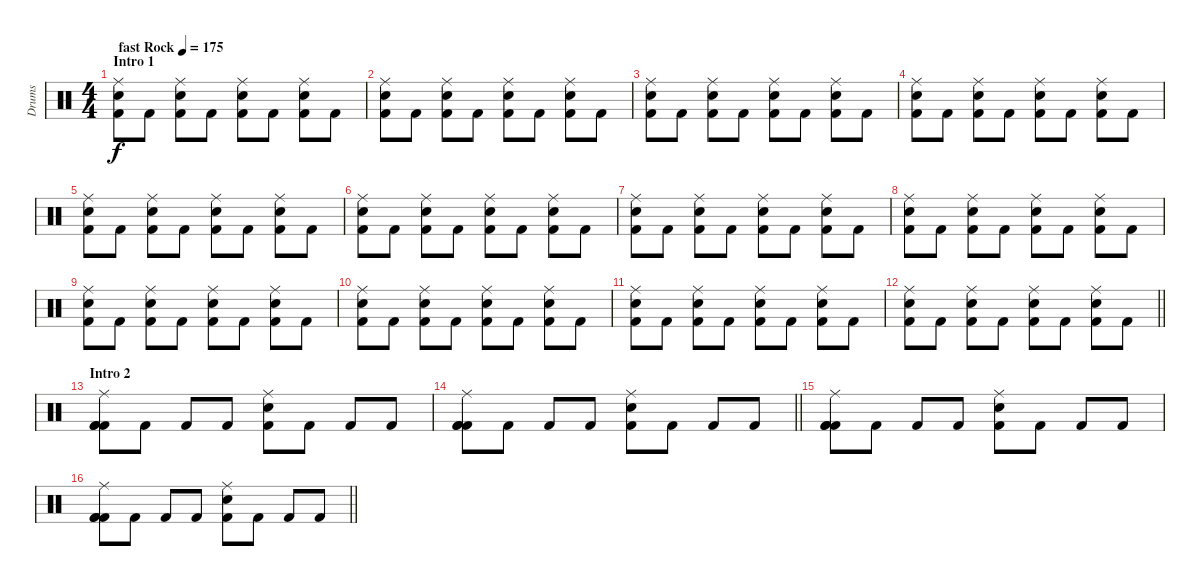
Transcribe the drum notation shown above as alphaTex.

\track ("Drums" "Drums") {instrument percussion}
\staff {score}
\articulation defaults
\ts (4 4)
\section ("" "Intro 1")
\tempo (175 "fast Rock")
\clef neutral
\ks c
("Ride (middle)" "Snare (hit) 2" "Kick (hit) 2").8{dy f} "Kick (hit) 2".8 ("Ride (middle)" "Snare (hit) 2" "Kick (hit) 2").8 "Kick (hit) 2".8 ("Ride (middle)" "Snare (hit) 2" "Kick (hit) 2").8 "Kick (hit) 2".8 ("Ride (middle)" "Snare (hit) 2" "Kick (hit) 2").8 "Kick (hit) 2".8 |
("Ride (middle)" "Snare (hit) 2" "Kick (hit) 2").8 "Kick (hit) 2".8 ("Ride (middle)" "Snare (hit) 2" "Kick (hit) 2").8 "Kick (hit) 2".8 ("Ride (middle)" "Snare (hit) 2" "Kick (hit) 2").8 "Kick (hit) 2".8 ("Ride (middle)" "Snare (hit) 2" "Kick (hit) 2").8 "Kick (hit) 2".8 |
("Ride (middle)" "Snare (hit) 2" "Kick (hit) 2").8 "Kick (hit) 2".8 ("Ride (middle)" "Snare (hit) 2" "Kick (hit) 2").8 "Kick (hit) 2".8 ("Ride (middle)" "Snare (hit) 2" "Kick (hit) 2").8 "Kick (hit) 2".8 ("Ride (middle)" "Snare (hit) 2" "Kick (hit) 2").8 "Kick (hit) 2".8 |
("Ride (middle)" "Snare (hit) 2" "Kick (hit) 2").8 "Kick (hit) 2".8 ("Ride (middle)" "Snare (hit) 2" "Kick (hit) 2").8 "Kick (hit) 2".8 ("Ride (middle)" "Snare (hit) 2" "Kick (hit) 2").8 "Kick (hit) 2".8 ("Ride (middle)" "Snare (hit) 2" "Kick (hit) 2").8 "Kick (hit) 2".8 |
("Ride (middle)" "Snare (hit) 2" "Kick (hit) 2").8 "Kick (hit) 2".8 ("Ride (middle)" "Snare (hit) 2" "Kick (hit) 2").8 "Kick (hit) 2".8 ("Ride (middle)" "Snare (hit) 2" "Kick (hit) 2").8 "Kick (hit) 2".8 ("Ride (middle)" "Snare (hit) 2" "Kick (hit) 2").8 "Kick (hit) 2".8 |
("Ride (middle)" "Snare (hit) 2" "Kick (hit) 2").8 "Kick (hit) 2".8 ("Ride (middle)" "Snare (hit) 2" "Kick (hit) 2").8 "Kick (hit) 2".8 ("Ride (middle)" "Snare (hit) 2" "Kick (hit) 2").8 "Kick (hit) 2".8 ("Ride (middle)" "Snare (hit) 2" "Kick (hit) 2").8 "Kick (hit) 2".8 |
("Ride (middle)" "Snare (hit) 2" "Kick (hit) 2").8 "Kick (hit) 2".8 ("Ride (middle)" "Snare (hit) 2" "Kick (hit) 2").8 "Kick (hit) 2".8 ("Ride (middle)" "Snare (hit) 2" "Kick (hit) 2").8 "Kick (hit) 2".8 ("Ride (middle)" "Snare (hit) 2" "Kick (hit) 2").8 "Kick (hit) 2".8 |
("Ride (middle)" "Snare (hit) 2" "Kick (hit) 2").8 "Kick (hit) 2".8 ("Ride (middle)" "Snare (hit) 2" "Kick (hit) 2").8 "Kick (hit) 2".8 ("Ride (middle)" "Snare (hit) 2" "Kick (hit) 2").8 "Kick (hit) 2".8 ("Ride (middle)" "Snare (hit) 2" "Kick (hit) 2").8 "Kick (hit) 2".8 |
("Ride (middle)" "Snare (hit) 2" "Kick (hit) 2").8 "Kick (hit) 2".8 ("Ride (middle)" "Snare (hit) 2" "Kick (hit) 2").8 "Kick (hit) 2".8 ("Ride (middle)" "Snare (hit) 2" "Kick (hit) 2").8 "Kick (hit) 2".8 ("Ride (middle)" "Snare (hit) 2" "Kick (hit) 2").8 "Kick (hit) 2".8 |
("Ride (middle)" "Snare (hit) 2" "Kick (hit) 2").8 "Kick (hit) 2".8 ("Ride (middle)" "Snare (hit) 2" "Kick (hit) 2").8 "Kick (hit) 2".8 ("Ride (middle)" "Snare (hit) 2" "Kick (hit) 2").8 "Kick (hit) 2".8 ("Ride (middle)" "Snare (hit) 2" "Kick (hit) 2").8 "Kick (hit) 2".8 |
("Ride (middle)" "Snare (hit) 2" "Kick (hit) 2").8 "Kick (hit) 2".8 ("Ride (middle)" "Snare (hit) 2" "Kick (hit) 2").8 "Kick (hit) 2".8 ("Ride (middle)" "Snare (hit) 2" "Kick (hit) 2").8 "Kick (hit) 2".8 ("Ride (middle)" "Snare (hit) 2" "Kick (hit) 2").8 "Kick (hit) 2".8 |
\barLineRight lightlight
("Ride (middle)" "Snare (hit) 2" "Kick (hit) 2").8 "Kick (hit) 2".8 ("Ride (middle)" "Snare (hit) 2" "Kick (hit) 2").8 "Kick (hit) 2".8 ("Ride (middle)" "Snare (hit) 2" "Kick (hit) 2").8 "Kick (hit) 2".8 ("Ride (middle)" "Snare (hit) 2" "Kick (hit) 2").8 "Kick (hit) 2".8 |
\section ("" "Intro 2")
("Kick (hit) 2" "Ride (middle)" "Kick (hit) 2" "Kick (hit) 2").8 "Kick (hit) 2".8 "Kick (hit) 2".8 "Kick (hit) 2".8 ("Electric Snare (hit)" "Ride (middle)" "Kick (hit) 2").8 "Kick (hit) 2".8 "Kick (hit) 2".8 "Kick (hit) 2".8 |
\barLineRight lightlight
("Kick (hit) 2" "Ride (middle)" "Kick (hit) 2" "Kick (hit) 2").8 "Kick (hit) 2".8 "Kick (hit) 2".8 "Kick (hit) 2".8 ("Electric Snare (hit)" "Ride (middle)" "Kick (hit) 2").8 "Kick (hit) 2".8 "Kick (hit) 2".8 "Kick (hit) 2".8 |
("Kick (hit) 2" "Ride (middle)" "Kick (hit) 2" "Kick (hit) 2").8 "Kick (hit) 2".8 "Kick (hit) 2".8 "Kick (hit) 2".8 ("Electric Snare (hit)" "Ride (middle)" "Kick (hit) 2").8 "Kick (hit) 2".8 "Kick (hit) 2".8 "Kick (hit) 2".8 |
\barLineRight lightlight
("Kick (hit) 2" "Ride (middle)" "Kick (hit) 2" "Kick (hit) 2").8 "Kick (hit) 2".8 "Kick (hit) 2".8 "Kick (hit) 2".8 ("Electric Snare (hit)" "Ride (middle)" "Kick (hit) 2").8 "Kick (hit) 2".8 "Kick (hit) 2".8 "Kick (hit) 2".8
